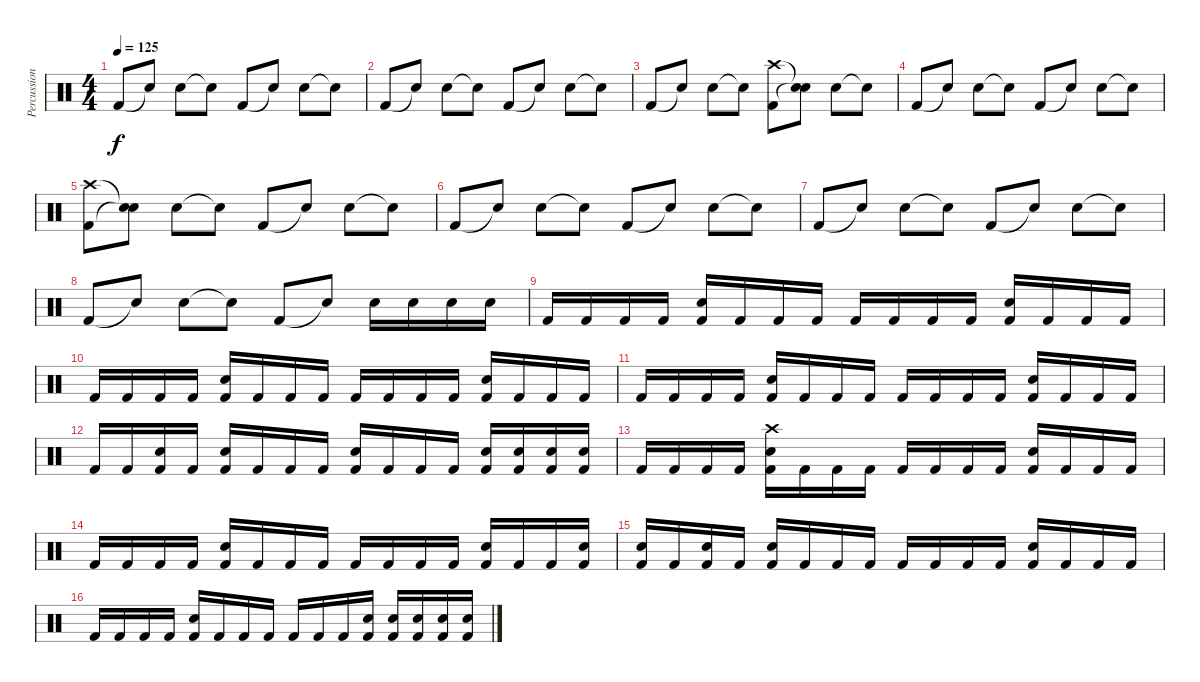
\track ("Percussion" "Percussion") {instrument percussion}
\staff {score}
\articulation defaults
\ts (4 4)
\tempo 125
\clef neutral
\ks c "Kick (hit) 2".8{dy f} "Snare (hit)"{t}.8 "Snare (hit) 2".8 "Snare (hit)"{t}.8 "Kick (hit) 2".8 "Snare (hit)"{t}.8 "Snare (hit) 2".8 "Snare (hit)"{t}.8
|
"Kick (hit) 2".8 "Snare (hit)"{t}.8 "Snare (hit) 2".8 "Snare (hit)"{t}.8 "Kick (hit) 2".8 "Snare (hit)"{t}.8 "Snare (hit) 2".8 "Snare (hit)"{t}.8 |
"Kick (hit) 2".8 "Snare (hit)"{t}.8 "Snare (hit) 2".8 "Snare (hit)"{t}.8 ("Kick (hit) 2" "Crash high (hit)").8 ("Snare (hit)"{t} "Snare (hit)"{t}).8 "Snare (hit) 2".8 "Snare (hit)"{t}.8 |
"Kick (hit) 2".8 "Snare (hit)"{t}.8 "Snare (hit) 2".8 "Snare (hit)"{t}.8 "Kick (hit) 2".8 "Snare (hit)"{t}.8 "Snare (hit) 2".8 "Snare (hit)"{t}.8 |
("Kick (hit) 2" "Crash high (hit)").8 ("Snare (hit)"{t} "Snare (hit)"{t}).8 "Snare (hit) 2".8 "Snare (hit)"{t}.8 "Kick (hit) 2".8 "Snare (hit)"{t}.8 "Snare (hit) 2".8 "Snare (hit)"{t}.8 |
"Kick (hit) 2".8 "Snare (hit)"{t}.8 "Snare (hit) 2".8 "Snare (hit)"{t}.8 "Kick (hit) 2".8 "Snare (hit)"{t}.8 "Snare (hit) 2".8 "Snare (hit)"{t}.8 |
"Kick (hit) 2".8 "Snare (hit)"{t}.8 "Snare (hit) 2".8 "Snare (hit)"{t}.8 "Kick (hit) 2".8 "Snare (hit)"{t}.8 "Snare (hit) 2".8 "Snare (hit)"{t}.8 |
"Kick (hit) 2".8 "Snare (hit)"{t}.8 "Snare (hit) 2".8 "Snare (hit)"{t}.8 "Kick (hit) 2".8 "Snare (hit)"{t}.8 "Snare (hit) 2".16 "Snare (hit) 2".16 "Snare (hit) 2".16 "Snare (hit) 2".16 |
"Kick (hit) 2".16 "Kick (hit) 2".16 "Kick (hit) 2".16 "Kick (hit) 2".16 ("Kick (hit) 2" "Snare (hit) 2").16 "Kick (hit) 2".16 "Kick (hit) 2".16 "Kick (hit) 2".16 "Kick (hit) 2".16 "Kick (hit) 2".16 "Kick (hit) 2".16 "Kick (hit) 2".16 ("Kick (hit) 2" "Snare (hit) 2").16 "Kick (hit) 2".16 "Kick (hit) 2".16 "Kick (hit) 2".16 |
"Kick (hit) 2".16 "Kick (hit) 2".16 "Kick (hit) 2".16 "Kick (hit) 2".16 ("Kick (hit) 2" "Snare (hit) 2").16 "Kick (hit) 2".16 "Kick (hit) 2".16 "Kick (hit) 2".16 "Kick (hit) 2".16 "Kick (hit) 2".16 "Kick (hit) 2".16 "Kick (hit) 2".16 ("Kick (hit) 2" "Snare (hit) 2").16 "Kick (hit) 2".16 "Kick (hit) 2".16 "Kick (hit) 2".16 |
"Kick (hit) 2".16 "Kick (hit) 2".16 "Kick (hit) 2".16 "Kick (hit) 2".16 ("Kick (hit) 2" "Snare (hit) 2").16 "Kick (hit) 2".16 "Kick (hit) 2".16 "Kick (hit) 2".16 "Kick (hit) 2".16 "Kick (hit) 2".16 "Kick (hit) 2".16 "Kick (hit) 2".16 ("Kick (hit) 2" "Snare (hit) 2").16 "Kick (hit) 2".16 "Kick (hit) 2".16 "Kick (hit) 2".16 |
"Kick (hit) 2".16 "Kick (hit) 2".16 ("Kick (hit) 2" "Snare (hit) 2").16 "Kick (hit) 2".16 ("Kick (hit) 2" "Snare (hit) 2").16 "Kick (hit) 2".16 "Kick (hit) 2".16 "Kick (hit) 2".16 ("Kick (hit) 2" "Snare (hit) 2").16 "Kick (hit) 2".16 "Kick (hit) 2".16 "Kick (hit) 2".16 ("Kick (hit) 2" "Snare (hit) 2").16 ("Kick (hit) 2" "Snare (hit) 2").16 ("Kick (hit) 2" "Snare (hit) 2").16 ("Kick (hit) 2" "Snare (hit) 2").16 |
"Kick (hit) 2".16 "Kick (hit) 2".16 "Kick (hit) 2".16 "Kick (hit) 2".16 ("Kick (hit) 2" "Snare (hit) 2" "Crash high (hit)").16 "Kick (hit) 2".16 "Kick (hit) 2".16 "Kick (hit) 2".16 "Kick (hit) 2".16 "Kick (hit) 2".16 "Kick (hit) 2".16 "Kick (hit) 2".16 ("Kick (hit) 2" "Snare (hit) 2").16 "Kick (hit) 2".16 "Kick (hit) 2".16 "Kick (hit) 2".16 |
"Kick (hit) 2".16 "Kick (hit) 2".16 "Kick (hit) 2".16 "Kick (hit) 2".16 ("Kick (hit) 2" "Snare (hit) 2").16 "Kick (hit) 2".16 "Kick (hit) 2".16 "Kick (hit) 2".16 "Kick (hit) 2".16 "Kick (hit) 2".16 "Kick (hit) 2".16 "Kick (hit) 2".16 ("Kick (hit) 2" "Snare (hit) 2").16 "Kick (hit) 2".16 "Kick (hit) 2".16 ("Kick (hit) 2" "Snare (hit) 2").16 |
("Kick (hit) 2" "Snare (hit) 2").16 "Kick (hit) 2".16 ("Kick (hit) 2" "Snare (hit) 2").16 "Kick (hit) 2".16 ("Kick (hit) 2" "Snare (hit) 2").16 "Kick (hit) 2".16 "Kick (hit) 2".16 "Kick (hit) 2".16 "Kick (hit) 2".16 "Kick (hit) 2".16 "Kick (hit) 2".16 "Kick (hit) 2".16 ("Kick (hit) 2" "Snare (hit) 2").16 "Kick (hit) 2".16 "Kick (hit) 2".16 "Kick (hit) 2".16 |
"Kick (hit) 2".16 "Kick (hit) 2".16 "Kick (hit) 2".16 "Kick (hit) 2".16 ("Kick (hit) 2" "Snare (hit) 2").16 "Kick (hit) 2".16 "Kick (hit) 2".16 "Kick (hit) 2".16 "Kick (hit) 2".16 "Kick (hit) 2".16 "Kick (hit) 2".16 ("Kick (hit) 2" "Snare (hit) 2").16 ("Kick (hit) 2" "Snare (hit) 2").16 ("Kick (hit) 2" "Snare (hit) 2").16 ("Kick (hit) 2" "Snare (hit) 2").16 ("Kick (hit) 2" "Snare (hit) 2").16
